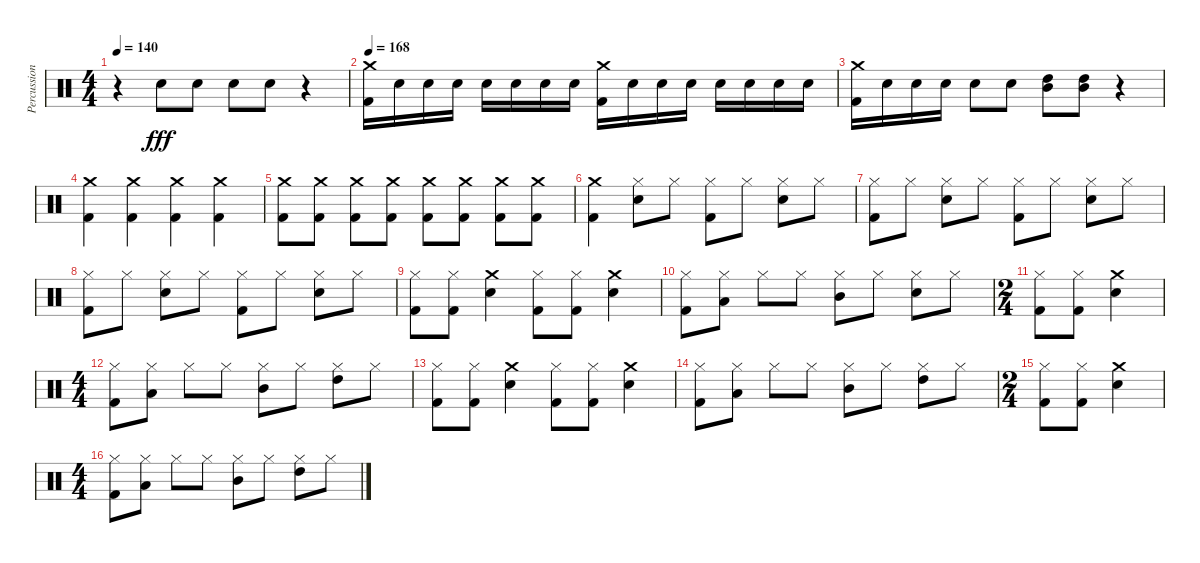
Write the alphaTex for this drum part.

\track ("Percussion" "Percussion") {instrument percussion}
\staff {score}
\articulation defaults
\ts (4 4)
\tempo 140
\clef neutral
\ks c
r.4{dy fff} "Snare (hit) 2".8 "Snare (hit) 2".8 "Snare (hit) 2".8 "Snare (hit) 2".8 r.4 |
\tempo 168
("Kick (hit) 2" "Crash medium (hit)").16 "Snare (hit) 2".16 "Snare (hit) 2".16 "Snare (hit) 2".16 "Snare (hit) 2".16 "Snare (hit) 2".16 "Snare (hit) 2".16 "Snare (hit) 2".16 ("Kick (hit) 2" "Crash medium (hit)").16 "Snare (hit) 2".16 "Snare (hit) 2".16 "Snare (hit) 2".16 "Snare (hit) 2".16 "Snare (hit) 2".16 "Snare (hit) 2".16 "Snare (hit) 2".16 |
("Kick (hit) 2" "Crash medium (hit)").16 "Snare (hit) 2".16 "Snare (hit) 2".16 "Snare (hit) 2".16 "Snare (hit) 2".8 "Snare (hit) 2".8 ("High Tom (hit)" "Mid Tom (hit)").8 ("High Tom (hit)" "Mid Tom (hit)").8 r.4 |
("Crash medium (hit)" "Kick (hit) 2").4 ("Crash medium (hit)" "Kick (hit) 2").4 ("Crash medium (hit)" "Kick (hit) 2").4 ("Crash medium (hit)" "Kick (hit) 2").4 |
("Kick (hit) 2" "Crash medium (hit)").8 ("Kick (hit) 2" "Crash medium (hit)").8 ("Kick (hit) 2" "Crash medium (hit)").8 ("Kick (hit) 2" "Crash medium (hit)").8 ("Kick (hit) 2" "Crash medium (hit)").8 ("Kick (hit) 2" "Crash medium (hit)").8 ("Kick (hit) 2" "Crash medium (hit)").8 ("Kick (hit) 2" "Crash medium (hit)").8 |
("Crash medium (hit)" "Kick (hit) 2").4 ("Hi-Hat (closed)" "Snare (hit) 2").8 "Hi-Hat (closed)".8 ("Kick (hit) 2" "Hi-Hat (closed)").8 "Hi-Hat (closed)".8 ("Snare (hit) 2" "Hi-Hat (closed)").8 "Hi-Hat (closed)".8 |
("Kick (hit) 2" "Hi-Hat (closed)").8 "Hi-Hat (closed)".8 ("Snare (hit) 2" "Hi-Hat (closed)").8 "Hi-Hat (closed)".8 ("Kick (hit) 2" "Hi-Hat (closed)").8 "Hi-Hat (closed)".8 ("Snare (hit) 2" "Hi-Hat (closed)").8 "Hi-Hat (closed)".8 |
("Kick (hit) 2" "Hi-Hat (closed)").8 "Hi-Hat (closed)".8 ("Snare (hit) 2" "Hi-Hat (closed)").8 "Hi-Hat (closed)".8 ("Kick (hit) 2" "Hi-Hat (closed)").8 "Hi-Hat (closed)".8 ("Snare (hit) 2" "Hi-Hat (closed)").8 "Hi-Hat (closed)".8 |
("Kick (hit) 2" "Hi-Hat (closed)").8 ("Kick (hit) 2" "Hi-Hat (closed)").8 ("Snare (hit) 2" "Crash medium (hit)").4 ("Hi-Hat (closed)" "Kick (hit) 2").8 ("Hi-Hat (closed)" "Kick (hit) 2").8 ("Crash medium (hit)" "Snare (hit) 2").4 |
("Hi-Hat (closed)" "Kick (hit) 2").8 ("Low Tom (hit)" "Hi-Hat (closed)").8 "Hi-Hat (closed)".8 "Hi-Hat (closed)".8 ("Mid Tom (hit)" "Hi-Hat (closed)").8 "Hi-Hat (closed)".8 ("Snare (hit) 2" "Hi-Hat (closed)").8 "Hi-Hat (closed)".8 |
\ts (2 4)
("Kick (hit) 2" "Hi-Hat (closed)").8 ("Kick (hit) 2" "Hi-Hat (closed)").8 ("Snare (hit) 2" "Crash medium (hit)").4 |
\ts (4 4)
("Hi-Hat (closed)" "Kick (hit) 2").8 ("Low Tom (hit)" "Hi-Hat (closed)").8 "Hi-Hat (closed)".8 "Hi-Hat (closed)".8 ("Mid Tom (hit)" "Hi-Hat (closed)").8 "Hi-Hat (closed)".8 ("Hi-Hat (closed)" "High Tom (hit)").8 "Hi-Hat (closed)".8 |
("Hi-Hat (closed)" "Kick (hit) 2").8 ("Hi-Hat (closed)" "Kick (hit) 2").8 ("Snare (hit) 2" "Crash medium (hit)").4 ("Kick (hit) 2" "Hi-Hat (closed)").8 ("Kick (hit) 2" "Hi-Hat (closed)").8 ("Crash medium (hit)" "Snare (hit) 2").4 |
("Hi-Hat (closed)" "Kick (hit) 2").8 ("Low Tom (hit)" "Hi-Hat (closed)").8 "Hi-Hat (closed)".8 "Hi-Hat (closed)".8 ("Mid Tom (hit)" "Hi-Hat (closed)").8 "Hi-Hat (closed)".8 ("Hi-Hat (closed)" "High Tom (hit)").8 "Hi-Hat (closed)".8 |
\ts (2 4)
("Hi-Hat (closed)" "Kick (hit) 2").8 ("Hi-Hat (closed)" "Kick (hit) 2").8 ("Crash medium (hit)" "Snare (hit) 2").4 |
\ts (4 4)
("Hi-Hat (closed)" "Kick (hit) 2").8 ("Low Tom (hit)" "Hi-Hat (closed)").8 "Hi-Hat (closed)".8 "Hi-Hat (closed)".8 ("Mid Tom (hit)" "Hi-Hat (closed)").8 "Hi-Hat (closed)".8 ("Hi-Hat (closed)" "High Tom (hit)").8 "Hi-Hat (closed)".8
